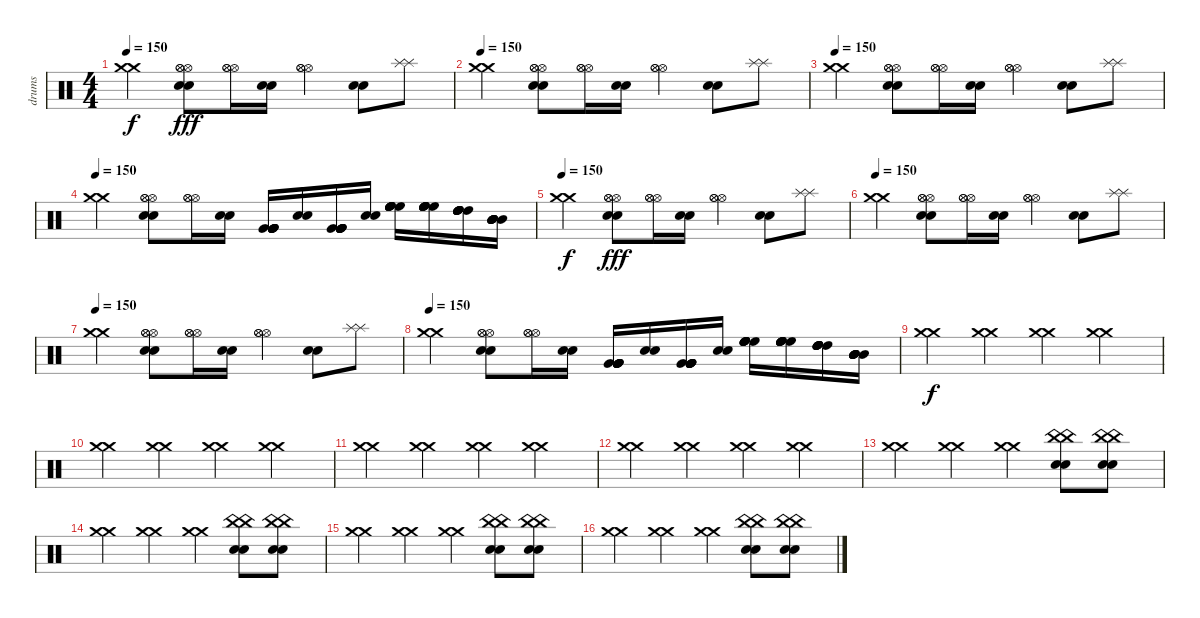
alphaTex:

\track ("drums" "drums") {instrument percussion}
\staff {score}
\articulation defaults
\ts (4 4)
\tempo 150
\clef neutral
\ks c
("Crash medium (hit)" "Crash medium (hit)").4{dy f volume 16} ("Snare (hit) 2" "Snare (hit) 2" "Hi-Hat (open)" "Hi-Hat (open)" "Hi-Hat (open)").8{dy fff} ("Hi-Hat (open)" "Hi-Hat (open)" "Hi-Hat (open)").16 ("Snare (hit) 2" "Snare (hit) 2").16 ("Hi-Hat (open)" "Hi-Hat (open)" "Hi-Hat (open)").4 ("Snare (hit) 2" "Snare (hit) 2").8 ("Splash (hit)" "Splash (hit)").8 |
\tempo 150
("Crash medium (hit)" "Crash medium (hit)").4 ("Snare (hit) 2" "Snare (hit) 2" "Hi-Hat (open)" "Hi-Hat (open)" "Hi-Hat (open)").8 ("Hi-Hat (open)" "Hi-Hat (open)" "Hi-Hat (open)").16 ("Snare (hit) 2" "Snare (hit) 2").16 ("Hi-Hat (open)" "Hi-Hat (open)" "Hi-Hat (open)").4 ("Snare (hit) 2" "Snare (hit) 2").8 ("Splash (hit)" "Splash (hit)").8 |
\tempo 150
("Crash medium (hit)" "Crash medium (hit)").4 ("Snare (hit) 2" "Snare (hit) 2" "Hi-Hat (open)" "Hi-Hat (open)" "Hi-Hat (open)").8 ("Hi-Hat (open)" "Hi-Hat (open)" "Hi-Hat (open)").16 ("Snare (hit) 2" "Snare (hit) 2").16 ("Hi-Hat (open)" "Hi-Hat (open)" "Hi-Hat (open)").4 ("Snare (hit) 2" "Snare (hit) 2").8 ("Splash (hit)" "Splash (hit)").8 |
\tempo 150
("Crash medium (hit)" "Crash medium (hit)").4 ("Snare (hit) 2" "Snare (hit) 2" "Hi-Hat (open)" "Hi-Hat (open)" "Hi-Hat (open)").8 ("Hi-Hat (open)" "Hi-Hat (open)" "Hi-Hat (open)").16 ("Snare (hit) 2" "Snare (hit) 2").16 ("Very Low Tom (hit)" "Very Low Tom (hit)" "Very Low Tom (hit)" "Very Low Tom (hit)" "Very Low Tom (hit)" "Very Low Tom (hit)").16 ("Snare (hit) 2" "Snare (hit) 2").16 ("Very Low Tom (hit)" "Very Low Tom (hit)" "Very Low Tom (hit)" "Very Low Tom (hit)" "Very Low Tom (hit)" "Very Low Tom (hit)").16 ("Snare (hit) 2" "Snare (hit) 2").16 ("High Floor Tom (hit)" "High Floor Tom (hit)" "High Floor Tom (hit)" "High Floor Tom (hit)" "High Floor Tom (hit)" "High Floor Tom (hit)").16 ("High Floor Tom (hit)" "High Floor Tom (hit)" "High Floor Tom (hit)" "High Floor Tom (hit)" "High Floor Tom (hit)" "High Floor Tom (hit)").16 ("High Tom (hit)" "High Tom (hit)" "High Tom (hit)" "High Tom (hit)" "High Tom (hit)" "High Tom (hit)").16 ("Mid Tom (hit)" "Mid Tom (hit)" "Mid Tom (hit)" "Mid Tom (hit)" "Mid Tom (hit)" "Mid Tom (hit)").16 |
\tempo 150
("Crash medium (hit)" "Crash medium (hit)").4{dy f volume 16} ("Snare (hit) 2" "Snare (hit) 2" "Hi-Hat (open)" "Hi-Hat (open)" "Hi-Hat (open)").8{dy fff} ("Hi-Hat (open)" "Hi-Hat (open)" "Hi-Hat (open)").16 ("Snare (hit) 2" "Snare (hit) 2").16 ("Hi-Hat (open)" "Hi-Hat (open)" "Hi-Hat (open)").4 ("Snare (hit) 2" "Snare (hit) 2").8 ("Splash (hit)" "Splash (hit)").8 |
\tempo 150
("Crash medium (hit)" "Crash medium (hit)").4 ("Snare (hit) 2" "Snare (hit) 2" "Hi-Hat (open)" "Hi-Hat (open)" "Hi-Hat (open)").8 ("Hi-Hat (open)" "Hi-Hat (open)" "Hi-Hat (open)").16 ("Snare (hit) 2" "Snare (hit) 2").16 ("Hi-Hat (open)" "Hi-Hat (open)" "Hi-Hat (open)").4 ("Snare (hit) 2" "Snare (hit) 2").8 ("Splash (hit)" "Splash (hit)").8 |
\tempo 150
("Crash medium (hit)" "Crash medium (hit)").4 ("Snare (hit) 2" "Snare (hit) 2" "Hi-Hat (open)" "Hi-Hat (open)" "Hi-Hat (open)").8 ("Hi-Hat (open)" "Hi-Hat (open)" "Hi-Hat (open)").16 ("Snare (hit) 2" "Snare (hit) 2").16 ("Hi-Hat (open)" "Hi-Hat (open)" "Hi-Hat (open)").4 ("Snare (hit) 2" "Snare (hit) 2").8 ("Splash (hit)" "Splash (hit)").8 |
\tempo 150
("Crash medium (hit)" "Crash medium (hit)").4 ("Snare (hit) 2" "Snare (hit) 2" "Hi-Hat (open)" "Hi-Hat (open)" "Hi-Hat (open)").8 ("Hi-Hat (open)" "Hi-Hat (open)" "Hi-Hat (open)").16 ("Snare (hit) 2" "Snare (hit) 2").16 ("Very Low Tom (hit)" "Very Low Tom (hit)" "Very Low Tom (hit)" "Very Low Tom (hit)" "Very Low Tom (hit)" "Very Low Tom (hit)").16 ("Snare (hit) 2" "Snare (hit) 2").16 ("Very Low Tom (hit)" "Very Low Tom (hit)" "Very Low Tom (hit)" "Very Low Tom (hit)" "Very Low Tom (hit)" "Very Low Tom (hit)").16 ("Snare (hit) 2" "Snare (hit) 2").16 ("High Floor Tom (hit)" "High Floor Tom (hit)" "High Floor Tom (hit)" "High Floor Tom (hit)" "High Floor Tom (hit)" "High Floor Tom (hit)").16 ("High Floor Tom (hit)" "High Floor Tom (hit)" "High Floor Tom (hit)" "High Floor Tom (hit)" "High Floor Tom (hit)" "High Floor Tom (hit)").16 ("High Tom (hit)" "High Tom (hit)" "High Tom (hit)" "High Tom (hit)" "High Tom (hit)" "High Tom (hit)").16 ("Mid Tom (hit)" "Mid Tom (hit)" "Mid Tom (hit)" "Mid Tom (hit)" "Mid Tom (hit)" "Mid Tom (hit)").16 |
("Crash medium (hit)" "Crash medium (hit)").4{dy f} ("Crash medium (hit)" "Crash medium (hit)").4 ("Crash medium (hit)" "Crash medium (hit)").4 ("Crash medium (hit)" "Crash medium (hit)").4 |
("Crash medium (hit)" "Crash medium (hit)").4 ("Crash medium (hit)" "Crash medium (hit)").4 ("Crash medium (hit)" "Crash medium (hit)").4 ("Crash medium (hit)" "Crash medium (hit)").4 |
("Crash medium (hit)" "Crash medium (hit)").4 ("Crash medium (hit)" "Crash medium (hit)").4 ("Crash medium (hit)" "Crash medium (hit)").4 ("Crash medium (hit)" "Crash medium (hit)").4 |
("Crash medium (hit)" "Crash medium (hit)").4 ("Crash medium (hit)" "Crash medium (hit)").4 ("Crash medium (hit)" "Crash medium (hit)").4 ("Crash medium (hit)" "Crash medium (hit)").4 |
("Crash medium (hit)" "Crash medium (hit)").4 ("Crash medium (hit)" "Crash medium (hit)").4 ("Crash medium (hit)" "Crash medium (hit)").4 ("China (hit)" "China (hit)" "Snare (hit) 2" "Snare (hit) 2").8 ("China (hit)" "China (hit)" "Snare (hit) 2" "Snare (hit) 2").8 |
("Crash medium (hit)" "Crash medium (hit)").4 ("Crash medium (hit)" "Crash medium (hit)").4 ("Crash medium (hit)" "Crash medium (hit)").4 ("China (hit)" "China (hit)" "Snare (hit) 2" "Snare (hit) 2").8 ("China (hit)" "China (hit)" "Snare (hit) 2" "Snare (hit) 2").8 |
("Crash medium (hit)" "Crash medium (hit)").4 ("Crash medium (hit)" "Crash medium (hit)").4 ("Crash medium (hit)" "Crash medium (hit)").4 ("China (hit)" "China (hit)" "Snare (hit) 2" "Snare (hit) 2").8 ("China (hit)" "China (hit)" "Snare (hit) 2" "Snare (hit) 2").8 |
("Crash medium (hit)" "Crash medium (hit)").4 ("Crash medium (hit)" "Crash medium (hit)").4 ("Crash medium (hit)" "Crash medium (hit)").4 ("China (hit)" "China (hit)" "Snare (hit) 2" "Snare (hit) 2").8 ("China (hit)" "China (hit)" "Snare (hit) 2" "Snare (hit) 2").8
